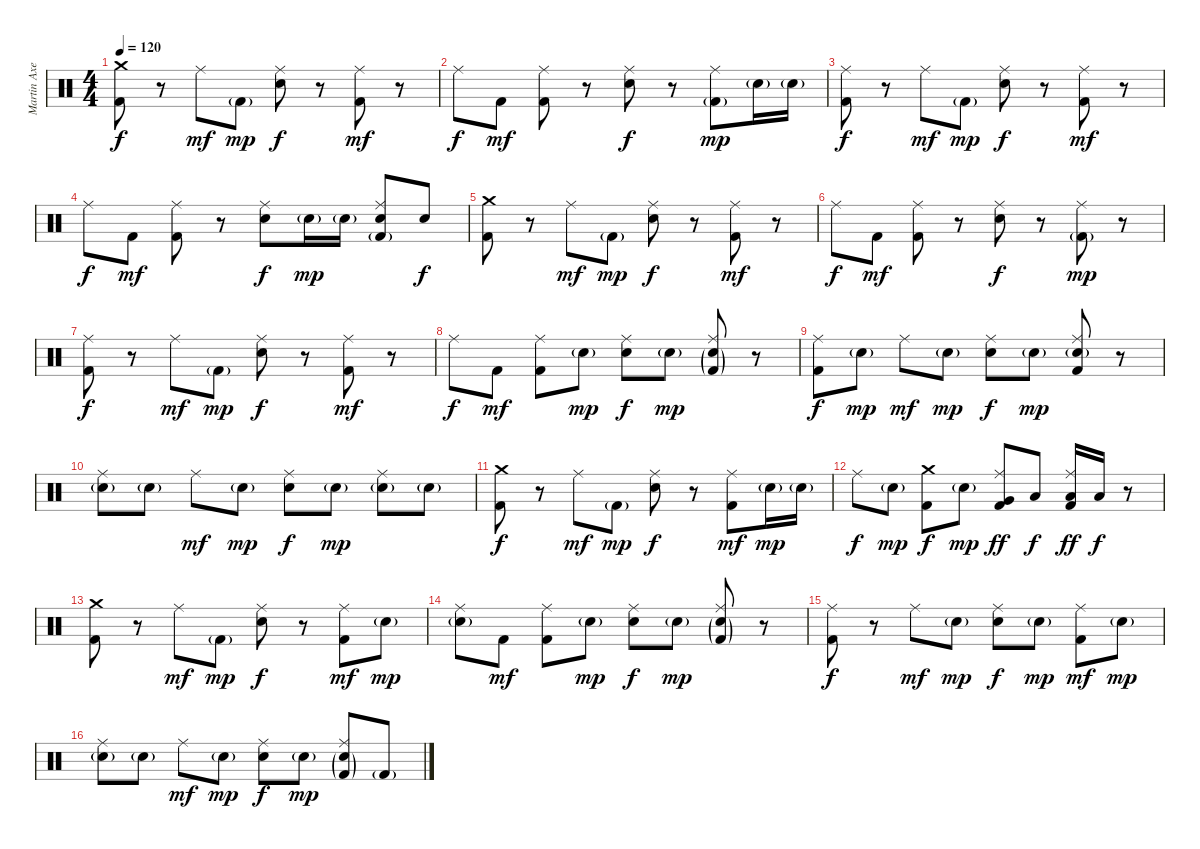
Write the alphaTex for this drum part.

\track ("Martin Axenrot - Drums" "Martin Axe") {instrument percussion}
\staff {score}
\articulation defaults
\ts (4 4)
\tempo 120
\clef neutral
\ks c
("Crash medium (hit)" "Kick (hit) 2").8{dy f} r.8 "Ride (middle)".8{dy mf} "Kick (hit) 2"{g}.8{dy mp} ("Ride (middle)" "Snare (hit) 2").8{dy f} r.8 ("Ride (middle)" "Kick (hit) 2").8{dy mf} r.8 |
"Ride (middle)".8{dy f} "Kick (hit) 2".8{dy mf} ("Ride (middle)" "Kick (hit) 2").8 r.8 ("Ride (middle)" "Snare (hit) 2").8{dy f} r.8 ("Ride (middle)" "Kick (hit) 2"{g}).8{dy mp} "Snare (hit) 2"{g}.16 "Snare (hit) 2"{g}.16 |
("Ride (middle)" "Kick (hit) 2").8{dy f} r.8 "Ride (middle)".8{dy mf} "Kick (hit) 2"{g}.8{dy mp} ("Ride (middle)" "Snare (hit) 2").8{dy f} r.8 ("Ride (middle)" "Kick (hit) 2").8{dy mf} r.8 |
"Ride (middle)".8{dy f} "Kick (hit) 2".8{dy mf} ("Ride (middle)" "Kick (hit) 2").8 r.8 ("Ride (middle)" "Snare (hit) 2").8{dy f} "Snare (hit) 2"{g}.16{dy mp} "Snare (hit) 2"{g}.16 ("Ride (middle)" "Snare (hit) 2" "Kick (hit) 2"{g}).8 "Snare (hit) 2".8{dy f} |
("Crash medium (hit)" "Kick (hit) 2").8 r.8 "Ride (middle)".8{dy mf} "Kick (hit) 2"{g}.8{dy mp} ("Ride (middle)" "Snare (hit) 2").8{dy f} r.8 ("Ride (middle)" "Kick (hit) 2").8{dy mf} r.8 |
"Ride (middle)".8{dy f} "Kick (hit) 2".8{dy mf} ("Ride (middle)" "Kick (hit) 2").8 r.8 ("Ride (middle)" "Snare (hit) 2").8{dy f} r.8 ("Ride (middle)" "Kick (hit) 2"{g}).8{dy mp} r.8 |
("Ride (middle)" "Kick (hit) 2").8{dy f} r.8 "Ride (middle)".8{dy mf} "Kick (hit) 2"{g}.8{dy mp} ("Ride (middle)" "Snare (hit) 2").8{dy f} r.8 ("Ride (middle)" "Kick (hit) 2").8{dy mf} r.8 |
"Ride (middle)".8{dy f} "Kick (hit) 2".8{dy mf} ("Ride (middle)" "Kick (hit) 2").8 "Snare (hit) 2"{g}.8{dy mp} ("Ride (middle)" "Snare (hit) 2").8{dy f} "Snare (hit) 2"{g}.8{dy mp} ("Ride (middle)" "Snare (hit) 2"{g} "Kick (hit) 2"{g}).8 r.8 |
("Ride (middle)" "Kick (hit) 2").8{dy f} "Snare (hit) 2"{g}.8{dy mp} "Ride (middle)".8{dy mf} "Snare (hit) 2"{g}.8{dy mp} ("Ride (middle)" "Snare (hit) 2").8{dy f} "Snare (hit) 2"{g}.8{dy mp} ("Ride (middle)" "Snare (hit) 2"{g} "Kick (hit) 2").8 r.8 |
("Ride (middle)" "Snare (hit) 2"{g}).8 "Snare (hit) 2"{g}.8 "Ride (middle)".8{dy mf} "Snare (hit) 2"{g}.8{dy mp} ("Ride (middle)" "Snare (hit) 2").8{dy f} "Snare (hit) 2"{g}.8{dy mp} ("Ride (middle)" "Snare (hit) 2"{g}).8 "Snare (hit) 2"{g}.8 |
("Crash medium (hit)" "Kick (hit) 2").8{dy f} r.8 "Ride (middle)".8{dy mf} "Kick (hit) 2"{g}.8{dy mp} ("Ride (middle)" "Snare (hit) 2").8{dy f} r.8 ("Ride (middle)" "Kick (hit) 2").8{dy mf} "Snare (hit) 2"{g}.16{dy mp} "Snare (hit) 2"{g}.16 |
"Ride (middle)".8{dy f} "Snare (hit) 2"{g}.8{dy mp} ("Crash medium (hit)" "Kick (hit) 2").8{dy f} "Snare (hit) 2"{g}.8{dy mp} ("Ride (middle)" "Very Low Tom (hit)" "Kick (hit) 2").8{dy ff} "Low Floor Tom (hit)".8{dy f} ("Ride (middle)" "Low Floor Tom (hit)" "Kick (hit) 2").16{dy ff} "Low Floor Tom (hit)".16{dy f} r.8 |
("Crash medium (hit)" "Kick (hit) 2").8 r.8 "Ride (middle)".8{dy mf} "Kick (hit) 2"{g}.8{dy mp} ("Ride (middle)" "Snare (hit) 2").8{dy f} r.8 ("Ride (middle)" "Kick (hit) 2").8{dy mf} "Snare (hit) 2"{g}.8{dy mp} |
("Ride (middle)" "Snare (hit) 2"{g}).8 "Kick (hit) 2".8{dy mf} ("Ride (middle)" "Kick (hit) 2").8 "Snare (hit) 2"{g}.8{dy mp} ("Ride (middle)" "Snare (hit) 2").8{dy f} "Snare (hit) 2"{g}.8{dy mp} ("Ride (middle)" "Snare (hit) 2"{g} "Kick (hit) 2"{g}).8 r.8 |
("Ride (middle)" "Kick (hit) 2").8{dy f} r.8 "Ride (middle)".8{dy mf} "Snare (hit) 2"{g}.8{dy mp} ("Ride (middle)" "Snare (hit) 2").8{dy f} "Snare (hit) 2"{g}.8{dy mp} ("Ride (middle)" "Kick (hit) 2").8{dy mf} "Snare (hit) 2"{g}.8{dy mp} |
("Ride (middle)" "Snare (hit) 2"{g}).8 "Snare (hit) 2"{g}.8 "Ride (middle)".8{dy mf} "Snare (hit) 2"{g}.8{dy mp} ("Ride (middle)" "Snare (hit) 2").8{dy f} "Snare (hit) 2"{g}.8{dy mp} ("Ride (middle)" "Snare (hit) 2"{g} "Kick (hit) 2"{g}).8 "Kick (hit) 2"{g}.8
